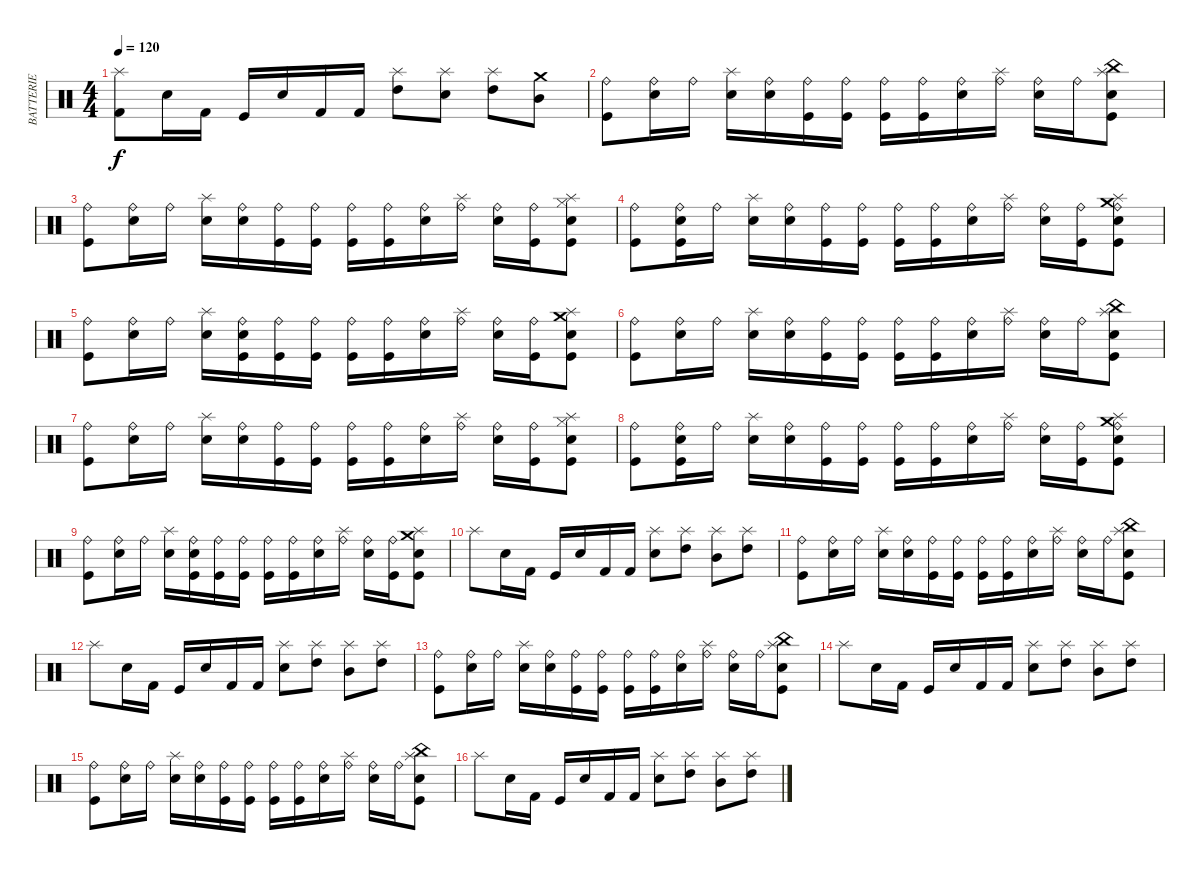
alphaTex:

\track ("BATTERIE" "BATTERIE") {instrument percussion}
\staff {score}
\articulation defaults
\ts (4 4)
\tempo 120
\clef neutral
\ks c
("Splash (hit)" "Kick (hit) 2").8{dy f} "Snare (hit) 2".16 "Kick (hit) 2".16 "Kick (hit)".16 "Snare (hit) 2".16 "Kick (hit) 2".16 "Kick (hit) 2".16 ("Splash (hit)" "High Tom (hit)").8 ("Splash (hit)" "Snare (hit) 2").8 ("Splash (hit)" "High Tom (hit)").8 ("Crash medium (hit)" "Mid Tom (hit)").8 |
("Ride (bell)" "Kick (hit)").8 ("Snare (hit) 2" "Ride (bell)").16 "Ride (bell)".16 ("Snare (hit) 2" "Splash (hit)").16 ("Snare (hit) 2" "Ride (bell)").16 ("Ride (bell)" "Kick (hit)").16 ("Ride (bell)" "Kick (hit)").16 ("Ride (bell)" "Kick (hit)").16 ("Ride (bell)" "Kick (hit)").16 ("Snare (hit) 2" "Ride (bell)").16 ("Ride (bell)" "Splash (hit)").16 ("Snare (hit) 2" "Ride (bell)").16 "Ride (bell)".16 ("China (hit)" "Splash (hit)" "Snare (hit) 2" "Kick (hit)").8 |
("Ride (bell)" "Kick (hit)").8 ("Snare (hit) 2" "Ride (bell)").16 "Ride (bell)".16 ("Snare (hit) 2" "Splash (hit)").16 ("Snare (hit) 2" "Ride (bell)").16 ("Ride (bell)" "Kick (hit)").16 ("Ride (bell)" "Kick (hit)").16 ("Ride (bell)" "Kick (hit)").16 ("Ride (bell)" "Kick (hit)").16 ("Snare (hit) 2" "Ride (bell)").16 ("Ride (bell)" "Splash (hit)").16 ("Snare (hit) 2" "Ride (bell)").16 ("Ride (bell)" "Kick (hit)").16 ("Hi-Hat (closed)" "Splash (hit)" "Snare (hit) 2" "Kick (hit)").8 |
("Ride (bell)" "Kick (hit)").8 ("Snare (hit) 2" "Ride (bell)" "Kick (hit)").16 "Ride (bell)".16 ("Snare (hit) 2" "Splash (hit)").16 ("Snare (hit) 2" "Ride (bell)").16 ("Ride (bell)" "Kick (hit)").16 ("Ride (bell)" "Kick (hit)").16 ("Ride (bell)" "Kick (hit)").16 ("Ride (bell)" "Kick (hit)").16 ("Snare (hit) 2" "Ride (bell)").16 ("Ride (bell)" "Splash (hit)").16 ("Snare (hit) 2" "Ride (bell)").16 ("Ride (bell)" "Kick (hit)").16 ("Crash medium (hit)" "Ride (bell)" "Splash (hit)" "Snare (hit) 2" "Kick (hit)").8 |
("Ride (bell)" "Kick (hit)").8 ("Snare (hit) 2" "Ride (bell)").16 "Ride (bell)".16 ("Snare (hit) 2" "Splash (hit)").16 ("Snare (hit) 2" "Ride (bell)" "Kick (hit)").16 ("Ride (bell)" "Kick (hit)").16 ("Ride (bell)" "Kick (hit)").16 ("Ride (bell)" "Kick (hit)").16 ("Ride (bell)" "Kick (hit)").16 ("Snare (hit) 2" "Ride (bell)").16 ("Ride (bell)" "Splash (hit)").16 ("Snare (hit) 2" "Ride (bell)").16 ("Ride (bell)" "Kick (hit)").16 ("Crash medium (hit)" "Splash (hit)" "Snare (hit) 2" "Kick (hit)").8 |
("Ride (bell)" "Kick (hit)").8 ("Snare (hit) 2" "Ride (bell)").16 "Ride (bell)".16 ("Snare (hit) 2" "Splash (hit)").16 ("Snare (hit) 2" "Ride (bell)").16 ("Ride (bell)" "Kick (hit)").16 ("Ride (bell)" "Kick (hit)").16 ("Ride (bell)" "Kick (hit)").16 ("Ride (bell)" "Kick (hit)").16 ("Snare (hit) 2" "Ride (bell)").16 ("Ride (bell)" "Splash (hit)").16 ("Snare (hit) 2" "Ride (bell)").16 "Ride (bell)".16 ("China (hit)" "Splash (hit)" "Snare (hit) 2" "Kick (hit)").8 |
("Ride (bell)" "Kick (hit)").8 ("Snare (hit) 2" "Ride (bell)").16 "Ride (bell)".16 ("Snare (hit) 2" "Splash (hit)").16 ("Snare (hit) 2" "Ride (bell)").16 ("Ride (bell)" "Kick (hit)").16 ("Ride (bell)" "Kick (hit)").16 ("Ride (bell)" "Kick (hit)").16 ("Ride (bell)" "Kick (hit)").16 ("Snare (hit) 2" "Ride (bell)").16 ("Ride (bell)" "Splash (hit)").16 ("Snare (hit) 2" "Ride (bell)").16 ("Ride (bell)" "Kick (hit)").16 ("Hi-Hat (closed)" "Splash (hit)" "Snare (hit) 2" "Kick (hit)").8 |
("Ride (bell)" "Kick (hit)").8 ("Snare (hit) 2" "Ride (bell)" "Kick (hit)").16 "Ride (bell)".16 ("Snare (hit) 2" "Splash (hit)").16 ("Snare (hit) 2" "Ride (bell)").16 ("Ride (bell)" "Kick (hit)").16 ("Ride (bell)" "Kick (hit)").16 ("Ride (bell)" "Kick (hit)").16 ("Ride (bell)" "Kick (hit)").16 ("Snare (hit) 2" "Ride (bell)").16 ("Ride (bell)" "Splash (hit)").16 ("Snare (hit) 2" "Ride (bell)").16 ("Ride (bell)" "Kick (hit)").16 ("Crash medium (hit)" "Ride (bell)" "Splash (hit)" "Snare (hit) 2" "Kick (hit)").8 |
("Ride (bell)" "Kick (hit)").8 ("Snare (hit) 2" "Ride (bell)").16 "Ride (bell)".16 ("Snare (hit) 2" "Splash (hit)").16 ("Snare (hit) 2" "Ride (bell)" "Kick (hit)").16 ("Ride (bell)" "Kick (hit)").16 ("Ride (bell)" "Kick (hit)").16 ("Ride (bell)" "Kick (hit)").16 ("Ride (bell)" "Kick (hit)").16 ("Snare (hit) 2" "Ride (bell)").16 ("Ride (bell)" "Splash (hit)").16 ("Snare (hit) 2" "Ride (bell)").16 ("Ride (bell)" "Kick (hit)").16 ("Crash medium (hit)" "Splash (hit)" "Snare (hit) 2" "Kick (hit)").8 |
"Splash (hit)".8 "Snare (hit) 2".16 "Kick (hit) 2".16 "Kick (hit)".16 "Snare (hit) 2".16 "Kick (hit) 2".16 "Kick (hit) 2".16 ("Splash (hit)" "Snare (hit) 2").8 ("Splash (hit)" "High Tom (hit)").8 ("Splash (hit)" "Mid Tom (hit)").8 ("Splash (hit)" "High Tom (hit)").8 |
("Ride (bell)" "Kick (hit)").8 ("Snare (hit) 2" "Ride (bell)").16 "Ride (bell)".16 ("Snare (hit) 2" "Splash (hit)").16 ("Snare (hit) 2" "Ride (bell)").16 ("Ride (bell)" "Kick (hit)").16 ("Ride (bell)" "Kick (hit)").16 ("Ride (bell)" "Kick (hit)").16 ("Ride (bell)" "Kick (hit)").16 ("Snare (hit) 2" "Ride (bell)").16 ("Ride (bell)" "Splash (hit)").16 ("Snare (hit) 2" "Ride (bell)").16 "Ride (bell)".16 ("China (hit)" "Splash (hit)" "Snare (hit) 2" "Kick (hit)").8 |
"Splash (hit)".8 "Snare (hit) 2".16 "Kick (hit) 2".16 "Kick (hit)".16 "Snare (hit) 2".16 "Kick (hit) 2".16 "Kick (hit) 2".16 ("Splash (hit)" "Snare (hit) 2").8 ("Splash (hit)" "High Tom (hit)").8 ("Splash (hit)" "Mid Tom (hit)").8 ("Splash (hit)" "High Tom (hit)").8 |
("Ride (bell)" "Kick (hit)").8 ("Snare (hit) 2" "Ride (bell)").16 "Ride (bell)".16 ("Snare (hit) 2" "Splash (hit)").16 ("Snare (hit) 2" "Ride (bell)").16 ("Ride (bell)" "Kick (hit)").16 ("Ride (bell)" "Kick (hit)").16 ("Ride (bell)" "Kick (hit)").16 ("Ride (bell)" "Kick (hit)").16 ("Snare (hit) 2" "Ride (bell)").16 ("Ride (bell)" "Splash (hit)").16 ("Snare (hit) 2" "Ride (bell)").16 "Ride (bell)".16 ("China (hit)" "Splash (hit)" "Snare (hit) 2" "Kick (hit)").8 |
"Splash (hit)".8 "Snare (hit) 2".16 "Kick (hit) 2".16 "Kick (hit)".16 "Snare (hit) 2".16 "Kick (hit) 2".16 "Kick (hit) 2".16 ("Splash (hit)" "Snare (hit) 2").8 ("Splash (hit)" "High Tom (hit)").8 ("Splash (hit)" "Mid Tom (hit)").8 ("Splash (hit)" "High Tom (hit)").8 |
("Ride (bell)" "Kick (hit)").8 ("Snare (hit) 2" "Ride (bell)").16 "Ride (bell)".16 ("Snare (hit) 2" "Splash (hit)").16 ("Snare (hit) 2" "Ride (bell)").16 ("Ride (bell)" "Kick (hit)").16 ("Ride (bell)" "Kick (hit)").16 ("Ride (bell)" "Kick (hit)").16 ("Ride (bell)" "Kick (hit)").16 ("Snare (hit) 2" "Ride (bell)").16 ("Ride (bell)" "Splash (hit)").16 ("Snare (hit) 2" "Ride (bell)").16 "Ride (bell)".16 ("China (hit)" "Splash (hit)" "Snare (hit) 2" "Kick (hit)").8 |
"Splash (hit)".8 "Snare (hit) 2".16 "Kick (hit) 2".16 "Kick (hit)".16 "Snare (hit) 2".16 "Kick (hit) 2".16 "Kick (hit) 2".16 ("Splash (hit)" "Snare (hit) 2").8 ("Splash (hit)" "High Tom (hit)").8 ("Splash (hit)" "Mid Tom (hit)").8 ("Splash (hit)" "High Tom (hit)").8
